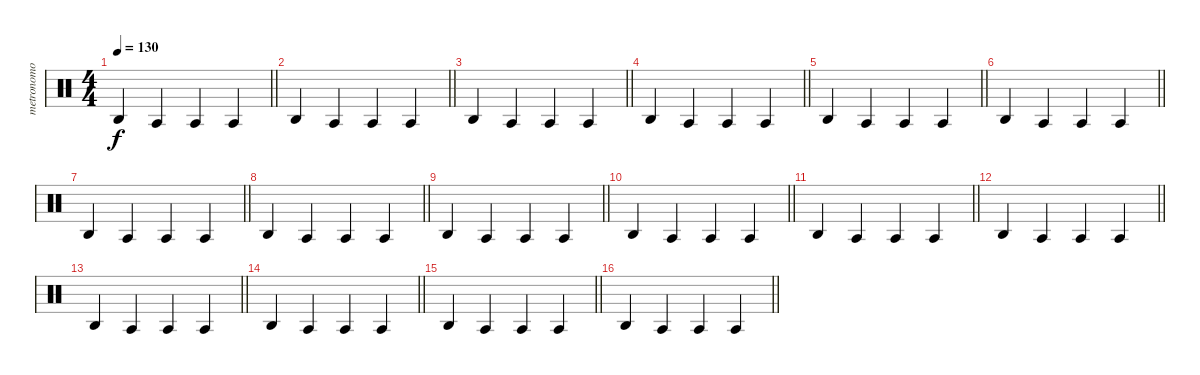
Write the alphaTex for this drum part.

\track ("metronomo" "metronomo") {mute instrument percussion}
\staff {score}
\articulation defaults
\ts (4 4)
\tempo 130
\clef neutral
\barLineRight lightlight
\ks c "Agogo high (hit)".4{dy f} "Agogo tow (hit)".4 "Agogo tow (hit)".4 "Agogo tow (hit)".4
|
\barLineRight lightlight "Agogo high (hit)".4 "Agogo tow (hit)".4 "Agogo tow (hit)".4 "Agogo tow (hit)".4
|
\barLineRight lightlight "Agogo high (hit)".4 "Agogo tow (hit)".4 "Agogo tow (hit)".4 "Agogo tow (hit)".4
|
\barLineRight lightlight "Agogo high (hit)".4 "Agogo tow (hit)".4 "Agogo tow (hit)".4 "Agogo tow (hit)".4
|
\barLineRight lightlight "Agogo high (hit)".4 "Agogo tow (hit)".4 "Agogo tow (hit)".4 "Agogo tow (hit)".4
|
\barLineRight lightlight "Agogo high (hit)".4 "Agogo tow (hit)".4 "Agogo tow (hit)".4 "Agogo tow (hit)".4
|
\barLineRight lightlight "Agogo high (hit)".4 "Agogo tow (hit)".4 "Agogo tow (hit)".4 "Agogo tow (hit)".4
|
\barLineRight lightlight "Agogo high (hit)".4 "Agogo tow (hit)".4 "Agogo tow (hit)".4 "Agogo tow (hit)".4
|
\barLineRight lightlight "Agogo high (hit)".4 "Agogo tow (hit)".4 "Agogo tow (hit)".4 "Agogo tow (hit)".4
|
\barLineRight lightlight "Agogo high (hit)".4 "Agogo tow (hit)".4 "Agogo tow (hit)".4 "Agogo tow (hit)".4
|
\barLineRight lightlight "Agogo high (hit)".4 "Agogo tow (hit)".4 "Agogo tow (hit)".4 "Agogo tow (hit)".4
|
\barLineRight lightlight "Agogo high (hit)".4 "Agogo tow (hit)".4 "Agogo tow (hit)".4 "Agogo tow (hit)".4
|
\barLineRight lightlight "Agogo high (hit)".4 "Agogo tow (hit)".4 "Agogo tow (hit)".4 "Agogo tow (hit)".4
|
\barLineRight lightlight "Agogo high (hit)".4 "Agogo tow (hit)".4 "Agogo tow (hit)".4 "Agogo tow (hit)".4
|
\barLineRight lightlight "Agogo high (hit)".4 "Agogo tow (hit)".4 "Agogo tow (hit)".4 "Agogo tow (hit)".4
|
\barLineRight lightlight "Agogo high (hit)".4 "Agogo tow (hit)".4 "Agogo tow (hit)".4 "Agogo tow (hit)".4
